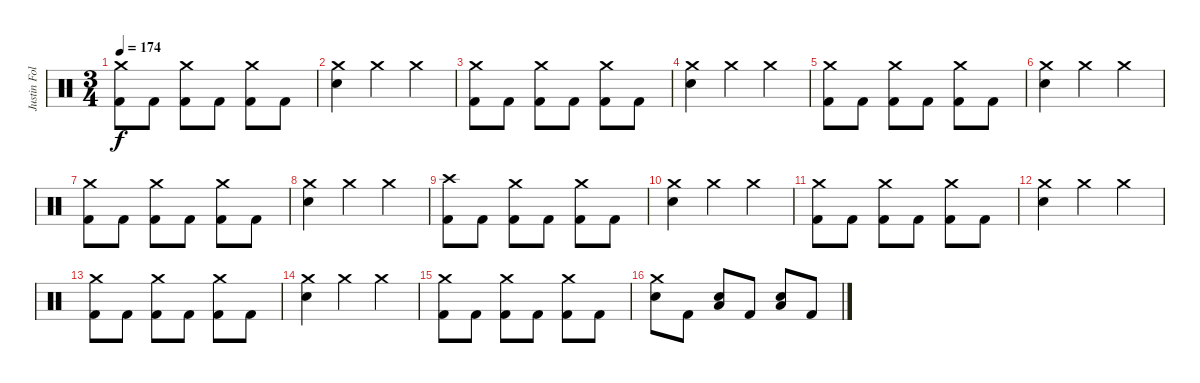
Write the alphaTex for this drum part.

\track ("Justin Foley" "Justin Fol") {instrument percussion}
\staff {score}
\articulation defaults
\ts (3 4)
\tempo 174
\clef neutral
\ks c
("Crash medium (hit)" "Kick (hit) 2").8{dy f} "Kick (hit) 2".8 ("Crash medium (hit)" "Kick (hit) 2").8 "Kick (hit) 2".8 ("Crash medium (hit)" "Kick (hit) 2").8 "Kick (hit) 2".8 |
("Crash medium (hit)" "Electric Snare (hit)").4 "Crash medium (hit)".4 "Crash medium (hit)".4 |
("Crash medium (hit)" "Kick (hit) 2").8 "Kick (hit) 2".8 ("Crash medium (hit)" "Kick (hit) 2").8 "Kick (hit) 2".8 ("Crash medium (hit)" "Kick (hit) 2").8 "Kick (hit) 2".8 |
("Crash medium (hit)" "Electric Snare (hit)").4 "Crash medium (hit)".4 "Crash medium (hit)".4 |
("Crash medium (hit)" "Kick (hit) 2").8 "Kick (hit) 2".8 ("Crash medium (hit)" "Kick (hit) 2").8 "Kick (hit) 2".8 ("Crash medium (hit)" "Kick (hit) 2").8 "Kick (hit) 2".8 |
("Crash medium (hit)" "Electric Snare (hit)").4 "Crash medium (hit)".4 "Crash medium (hit)".4 |
("Crash medium (hit)" "Kick (hit) 2").8 "Kick (hit) 2".8 ("Crash medium (hit)" "Kick (hit) 2").8 "Kick (hit) 2".8 ("Crash medium (hit)" "Kick (hit) 2").8 "Kick (hit) 2".8 |
("Crash medium (hit)" "Electric Snare (hit)").4 "Crash medium (hit)".4 "Crash medium (hit)".4 |
("Crash high (hit)" "Kick (hit) 2").8 "Kick (hit) 2".8 ("Crash medium (hit)" "Kick (hit) 2").8 "Kick (hit) 2".8 ("Crash medium (hit)" "Kick (hit) 2").8 "Kick (hit) 2".8 |
("Crash medium (hit)" "Electric Snare (hit)").4 "Crash medium (hit)".4 "Crash medium (hit)".4 |
("Crash medium (hit)" "Kick (hit) 2").8 "Kick (hit) 2".8 ("Crash medium (hit)" "Kick (hit) 2").8 "Kick (hit) 2".8 ("Crash medium (hit)" "Kick (hit) 2").8 "Kick (hit) 2".8 |
("Crash medium (hit)" "Electric Snare (hit)").4 "Crash medium (hit)".4 "Crash medium (hit)".4 |
("Crash medium (hit)" "Kick (hit) 2").8 "Kick (hit) 2".8 ("Crash medium (hit)" "Kick (hit) 2").8 "Kick (hit) 2".8 ("Crash medium (hit)" "Kick (hit) 2").8 "Kick (hit) 2".8 |
("Crash medium (hit)" "Electric Snare (hit)").4 "Crash medium (hit)".4 "Crash medium (hit)".4 |
("Crash medium (hit)" "Kick (hit) 2").8 "Kick (hit) 2".8 ("Crash medium (hit)" "Kick (hit) 2").8 "Kick (hit) 2".8 ("Crash medium (hit)" "Kick (hit) 2").8 "Kick (hit) 2".8 |
("Crash medium (hit)" "Electric Snare (hit)").8 "Kick (hit) 2".8 ("Electric Snare (hit)" "Low Floor Tom (hit)").8 "Kick (hit) 2".8 ("Electric Snare (hit)" "Low Floor Tom (hit)").8 "Kick (hit) 2".8
